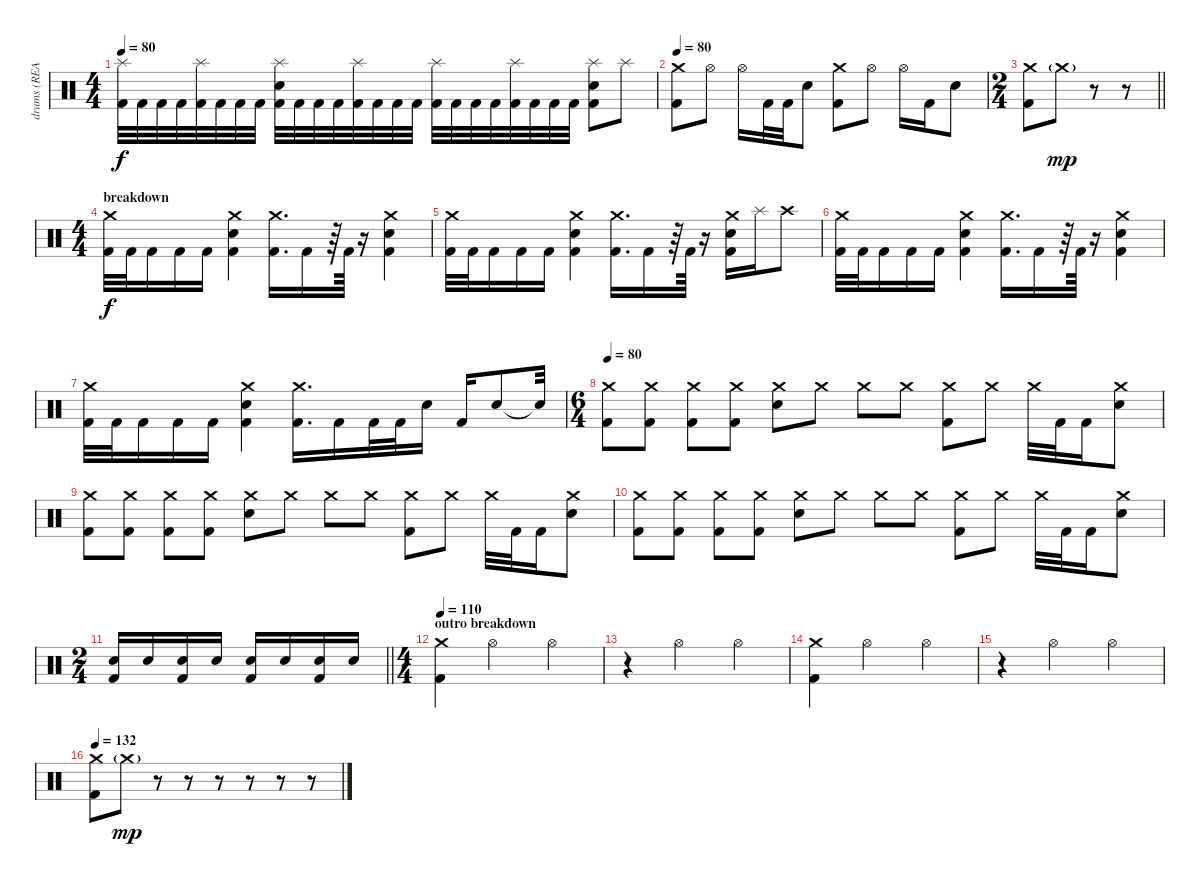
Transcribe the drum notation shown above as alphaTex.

\track ("drums (REAL simple)" "drums (REA") {instrument percussion}
\staff {score}
\articulation defaults
\ts (4 4)
\tempo 80
\clef neutral
\ks c
("Splash (hit)" "Kick (hit) 2").32{dy f} "Kick (hit) 2".32 "Kick (hit) 2".32 "Kick (hit) 2".32 ("Splash (hit)" "Kick (hit) 2").32 "Kick (hit) 2".32 "Kick (hit) 2".32 "Kick (hit) 2".32 ("Splash (hit)" "Electric Snare (hit)" "Kick (hit) 2").32 "Kick (hit) 2".32 "Kick (hit) 2".32 "Kick (hit) 2".32 ("Splash (hit)" "Kick (hit) 2").32 "Kick (hit) 2".32 "Kick (hit) 2".32 "Kick (hit) 2".32 ("Splash (hit)" "Kick (hit) 2").32 "Kick (hit) 2".32 "Kick (hit) 2".32 "Kick (hit) 2".32 ("Splash (hit)" "Kick (hit) 2").32 "Kick (hit) 2".32 "Kick (hit) 2".32 "Kick (hit) 2".32 ("Splash (hit)" "Electric Snare (hit)" "Kick (hit) 2").8 "Splash (hit)".8 |
\tempo 80
("Crash medium (hit)" "Kick (hit) 2").8 "Hi-Hat (open)".8 "Hi-Hat (open)".16 "Kick (hit) 2".32 "Kick (hit) 2".32 "Electric Snare (hit)".8 ("Crash medium (hit)" "Kick (hit) 2").8 "Hi-Hat (open)".8 "Hi-Hat (open)".16 "Kick (hit) 2".16 "Electric Snare (hit)".8 |
\ts (2 4)
\barLineRight lightlight
("Crash medium (hit)" "Kick (hit) 2").8 "Crash medium (hit)"{g}.8{dy mp} r.8 r.8 |
\ts (4 4)
\section ("" "breakdown")
("Crash medium (hit)" "Kick (hit) 2").32{dy f} "Kick (hit) 2".32 "Kick (hit) 2".16 "Kick (hit) 2".16 "Kick (hit) 2".16 ("Crash medium (hit)" "Electric Snare (hit)" "Kick (hit) 2").4 ("Crash medium (hit)" "Kick (hit) 2").16{d} "Kick (hit) 2".16 r.64 "Kick (hit) 2".64 r.16 ("Crash medium (hit)" "Electric Snare (hit)" "Kick (hit) 2").4 |
("Crash medium (hit)" "Kick (hit) 2").32 "Kick (hit) 2".32 "Kick (hit) 2".16 "Kick (hit) 2".16 "Kick (hit) 2".16 ("Crash medium (hit)" "Electric Snare (hit)" "Kick (hit) 2").4 ("Crash medium (hit)" "Kick (hit) 2").16{d} "Kick (hit) 2".16 r.64 "Kick (hit) 2".64 r.16 ("Crash medium (hit)" "Electric Snare (hit)" "Kick (hit) 2").16 "Splash (hit)".16 "Crash high (hit)".8 |
("Crash medium (hit)" "Kick (hit) 2").32 "Kick (hit) 2".32 "Kick (hit) 2".16 "Kick (hit) 2".16 "Kick (hit) 2".16 ("Crash medium (hit)" "Electric Snare (hit)" "Kick (hit) 2").4 ("Crash medium (hit)" "Kick (hit) 2").16{d} "Kick (hit) 2".16 r.64 "Kick (hit) 2".64 r.16 ("Crash medium (hit)" "Electric Snare (hit)" "Kick (hit) 2").4 |
("Crash medium (hit)" "Kick (hit) 2").32 "Kick (hit) 2".32 "Kick (hit) 2".16 "Kick (hit) 2".16 "Kick (hit) 2".16 ("Crash medium (hit)" "Electric Snare (hit)" "Kick (hit) 2").4 ("Crash medium (hit)" "Kick (hit) 2").16{d} "Kick (hit) 2".16 "Kick (hit) 2".32 "Kick (hit) 2".32 "Electric Snare (hit)".16 "Kick (hit) 2".16 "Electric Snare (hit)".8 "Snare (hit)"{t}.32 |
\ts (6 4)
\tempo 80
("Crash medium (hit)" "Kick (hit) 2").8 ("Crash medium (hit)" "Kick (hit) 2").8 ("Crash medium (hit)" "Kick (hit) 2").8 ("Crash medium (hit)" "Kick (hit) 2").8 ("Crash medium (hit)" "Electric Snare (hit)").8 "Crash medium (hit)".8 "Crash medium (hit)".8 "Crash medium (hit)".8 ("Crash medium (hit)" "Kick (hit) 2").8 "Crash medium (hit)".8 "Crash medium (hit)".32 "Kick (hit) 2".32 "Kick (hit) 2".16 ("Crash medium (hit)" "Electric Snare (hit)").8 |
("Crash medium (hit)" "Kick (hit) 2").8 ("Crash medium (hit)" "Kick (hit) 2").8 ("Crash medium (hit)" "Kick (hit) 2").8 ("Crash medium (hit)" "Kick (hit) 2").8 ("Crash medium (hit)" "Electric Snare (hit)").8 "Crash medium (hit)".8 "Crash medium (hit)".8 "Crash medium (hit)".8 ("Crash medium (hit)" "Kick (hit) 2").8 "Crash medium (hit)".8 "Crash medium (hit)".32 "Kick (hit) 2".32 "Kick (hit) 2".16 ("Crash medium (hit)" "Electric Snare (hit)").8 |
("Crash medium (hit)" "Kick (hit) 2").8 ("Crash medium (hit)" "Kick (hit) 2").8 ("Crash medium (hit)" "Kick (hit) 2").8 ("Crash medium (hit)" "Kick (hit) 2").8 ("Crash medium (hit)" "Electric Snare (hit)").8 "Crash medium (hit)".8 "Crash medium (hit)".8 "Crash medium (hit)".8 ("Crash medium (hit)" "Kick (hit) 2").8 "Crash medium (hit)".8 "Crash medium (hit)".32 "Kick (hit) 2".32 "Kick (hit) 2".16 ("Crash medium (hit)" "Electric Snare (hit)").8 |
\ts (2 4)
\barLineRight lightlight
("Electric Snare (hit)" "Kick (hit) 2").16 "Electric Snare (hit)".16 ("Electric Snare (hit)" "Kick (hit) 2").16 "Electric Snare (hit)".16 ("Electric Snare (hit)" "Kick (hit) 2").16 "Electric Snare (hit)".16 ("Electric Snare (hit)" "Kick (hit) 2").16 "Electric Snare (hit)".16 |
\ts (4 4)
\section ("" "outro breakdown")
\tempo 110
("Crash medium (hit)" "Kick (hit) 2").4 "Hi-Hat (open)".2 "Hi-Hat (open)".4 |
r.4 "Hi-Hat (open)".2 "Hi-Hat (open)".4 |
("Crash medium (hit)" "Kick (hit) 2").4 "Hi-Hat (open)".2 "Hi-Hat (open)".4 |
r.4 "Hi-Hat (open)".2 "Hi-Hat (open)".4 |
\tempo 132
("Crash medium (hit)" "Kick (hit) 2").8 "Crash medium (hit)"{g}.8{dy mp} r.8 r.8 r.8 r.8 r.8 r.8
